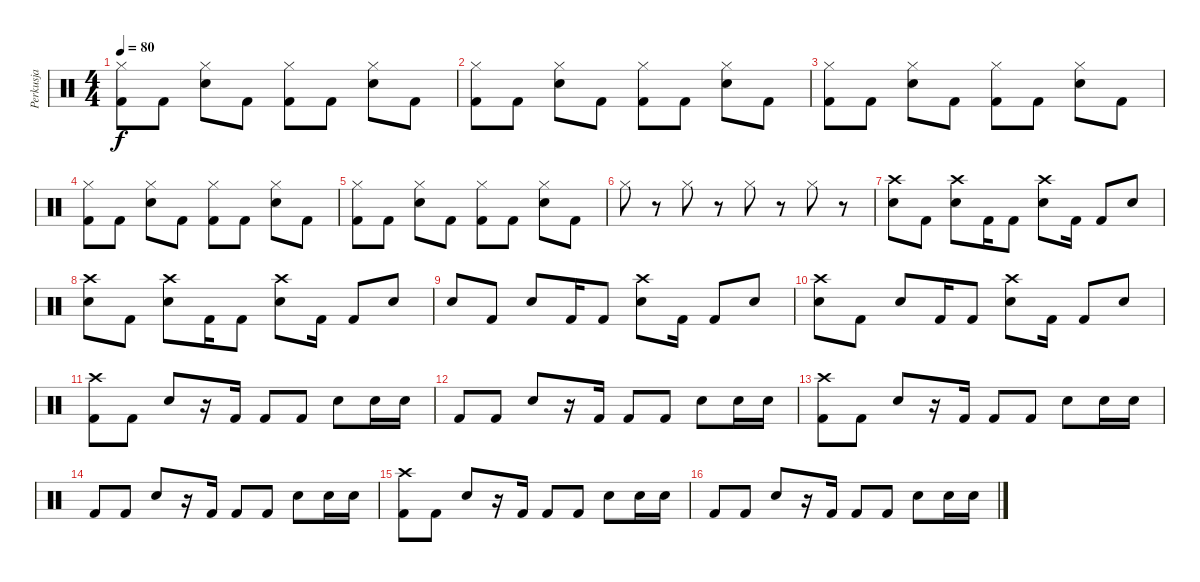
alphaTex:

\track ("Perkusja" "Perkusja") {instrument percussion}
\staff {score}
\articulation defaults
\ts (4 4)
\tempo 80
\clef neutral
\ks c
("Hi-Hat (closed)" "Kick (hit) 2").8{dy f} "Kick (hit) 2".8 ("Hi-Hat (closed)" "Snare (hit) 2").8 "Kick (hit) 2".8 ("Hi-Hat (closed)" "Kick (hit) 2").8 "Kick (hit) 2".8 ("Hi-Hat (closed)" "Snare (hit) 2").8 "Kick (hit) 2".8 |
("Hi-Hat (closed)" "Kick (hit) 2").8 "Kick (hit) 2".8 ("Hi-Hat (closed)" "Snare (hit) 2").8 "Kick (hit) 2".8 ("Hi-Hat (closed)" "Kick (hit) 2").8 "Kick (hit) 2".8 ("Hi-Hat (closed)" "Snare (hit) 2").8 "Kick (hit) 2".8 |
("Hi-Hat (closed)" "Kick (hit) 2").8 "Kick (hit) 2".8 ("Hi-Hat (closed)" "Snare (hit) 2").8 "Kick (hit) 2".8 ("Hi-Hat (closed)" "Kick (hit) 2").8 "Kick (hit) 2".8 ("Hi-Hat (closed)" "Snare (hit) 2").8 "Kick (hit) 2".8 |
("Hi-Hat (closed)" "Kick (hit) 2").8 "Kick (hit) 2".8 ("Hi-Hat (closed)" "Snare (hit) 2").8 "Kick (hit) 2".8 ("Hi-Hat (closed)" "Kick (hit) 2").8 "Kick (hit) 2".8 ("Hi-Hat (closed)" "Snare (hit) 2").8 "Kick (hit) 2".8 |
("Hi-Hat (closed)" "Kick (hit) 2").8 "Kick (hit) 2".8 ("Hi-Hat (closed)" "Snare (hit) 2").8 "Kick (hit) 2".8 ("Hi-Hat (closed)" "Kick (hit) 2").8 "Kick (hit) 2".8 ("Hi-Hat (closed)" "Snare (hit) 2").8 "Kick (hit) 2".8 |
"Hi-Hat (closed)".8 r.8 "Hi-Hat (closed)".8 r.8 "Hi-Hat (closed)".8 r.8 "Hi-Hat (closed)".8 r.8 |
("Crash high (hit)" "Electric Snare (hit)").8 "Kick (hit) 2".8 ("Crash high (hit)" "Electric Snare (hit)").8 "Kick (hit) 2".16 "Kick (hit) 2".8 ("Crash high (hit)" "Electric Snare (hit)").8 "Kick (hit) 2".16 "Kick (hit) 2".8 "Electric Snare (hit)".8 |
("Crash high (hit)" "Electric Snare (hit)").8 "Kick (hit) 2".8 ("Crash high (hit)" "Electric Snare (hit)").8 "Kick (hit) 2".16 "Kick (hit) 2".8 ("Crash high (hit)" "Electric Snare (hit)").8 "Kick (hit) 2".16 "Kick (hit) 2".8 "Electric Snare (hit)".8 |
"Electric Snare (hit)".8 "Kick (hit) 2".8 "Electric Snare (hit)".8 "Kick (hit) 2".16 "Kick (hit) 2".8 ("Crash high (hit)" "Electric Snare (hit)").8 "Kick (hit) 2".16 "Kick (hit) 2".8 "Electric Snare (hit)".8 |
("Crash high (hit)" "Electric Snare (hit)").8 "Kick (hit) 2".8 "Electric Snare (hit)".8 "Kick (hit) 2".16 "Kick (hit) 2".8 ("Crash high (hit)" "Electric Snare (hit)").8 "Kick (hit) 2".16 "Kick (hit) 2".8 "Electric Snare (hit)".8 |
("Crash high (hit)" "Kick (hit) 2").8 "Kick (hit) 2".8 "Electric Snare (hit)".8 r.16 "Kick (hit) 2".16 "Kick (hit) 2".8 "Kick (hit) 2".8 "Electric Snare (hit)".8 "Electric Snare (hit)".16 "Electric Snare (hit)".16 |
"Kick (hit) 2".8 "Kick (hit) 2".8 "Electric Snare (hit)".8 r.16 "Kick (hit) 2".16 "Kick (hit) 2".8 "Kick (hit) 2".8 "Electric Snare (hit)".8 "Electric Snare (hit)".16 "Electric Snare (hit)".16 |
("Crash high (hit)" "Kick (hit) 2").8 "Kick (hit) 2".8 "Electric Snare (hit)".8 r.16 "Kick (hit) 2".16 "Kick (hit) 2".8 "Kick (hit) 2".8 "Electric Snare (hit)".8 "Electric Snare (hit)".16 "Electric Snare (hit)".16 |
"Kick (hit) 2".8 "Kick (hit) 2".8 "Electric Snare (hit)".8 r.16 "Kick (hit) 2".16 "Kick (hit) 2".8 "Kick (hit) 2".8 "Electric Snare (hit)".8 "Electric Snare (hit)".16 "Electric Snare (hit)".16 |
("Crash high (hit)" "Kick (hit) 2").8 "Kick (hit) 2".8 "Electric Snare (hit)".8 r.16 "Kick (hit) 2".16 "Kick (hit) 2".8 "Kick (hit) 2".8 "Electric Snare (hit)".8 "Electric Snare (hit)".16 "Electric Snare (hit)".16 |
"Kick (hit) 2".8 "Kick (hit) 2".8 "Electric Snare (hit)".8 r.16 "Kick (hit) 2".16 "Kick (hit) 2".8 "Kick (hit) 2".8 "Electric Snare (hit)".8 "Electric Snare (hit)".16 "Electric Snare (hit)".16
